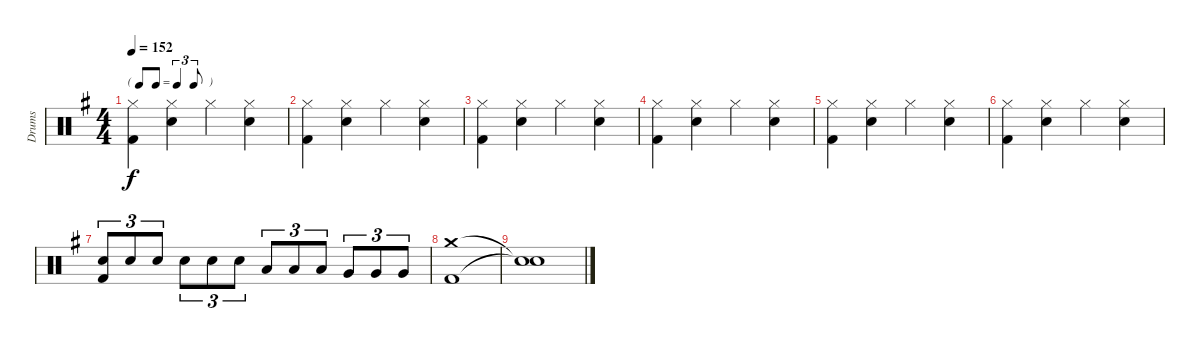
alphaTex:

\track ("Drums" "Drums") {instrument percussion}
\staff {score}
\articulation defaults
\ts (4 4)
\tf triplet8th
\tempo 152
\clef neutral
\ks g
("Hi-Hat (closed)" "Kick (hit) 2").4{dy f} ("Hi-Hat (closed)" "Snare (hit) 2").4 "Hi-Hat (closed)".4 ("Hi-Hat (closed)" "Snare (hit) 2").4 |
("Hi-Hat (closed)" "Kick (hit) 2").4 ("Hi-Hat (closed)" "Snare (hit) 2").4 "Hi-Hat (closed)".4 ("Hi-Hat (closed)" "Snare (hit) 2").4 |
("Hi-Hat (closed)" "Kick (hit) 2").4 ("Hi-Hat (closed)" "Snare (hit) 2").4 "Hi-Hat (closed)".4 ("Hi-Hat (closed)" "Snare (hit) 2").4 |
("Hi-Hat (closed)" "Kick (hit) 2").4 ("Hi-Hat (closed)" "Snare (hit) 2").4 "Hi-Hat (closed)".4 ("Hi-Hat (closed)" "Snare (hit) 2").4 |
("Hi-Hat (closed)" "Kick (hit) 2").4 ("Hi-Hat (closed)" "Snare (hit) 2").4 "Hi-Hat (closed)".4 ("Hi-Hat (closed)" "Snare (hit) 2").4 |
("Hi-Hat (closed)" "Kick (hit) 2").4 ("Hi-Hat (closed)" "Snare (hit) 2").4 "Hi-Hat (closed)".4 ("Hi-Hat (closed)" "Snare (hit) 2").4 |
("Snare (hit) 2" "Kick (hit) 2").8{tu (3 2)} "Snare (hit) 2".8{tu (3 2)} "Snare (hit) 2".8{tu (3 2)} "Snare (hit) 2".8{tu (3 2)} "Snare (hit) 2".8{tu (3 2)} "Snare (hit) 2".8{tu (3 2)} "Low Tom (hit)".8{tu (3 2)} "Low Tom (hit)".8{tu (3 2)} "Low Tom (hit)".8{tu (3 2)} "Very Low Tom (hit)".8{tu (3 2)} "Very Low Tom (hit)".8{tu (3 2)} "Very Low Tom (hit)".8{tu (3 2)} |
("Crash medium (hit)" "Kick (hit) 2").1 |
("Snare (hit)"{t} "Snare (hit)"{t}).1
